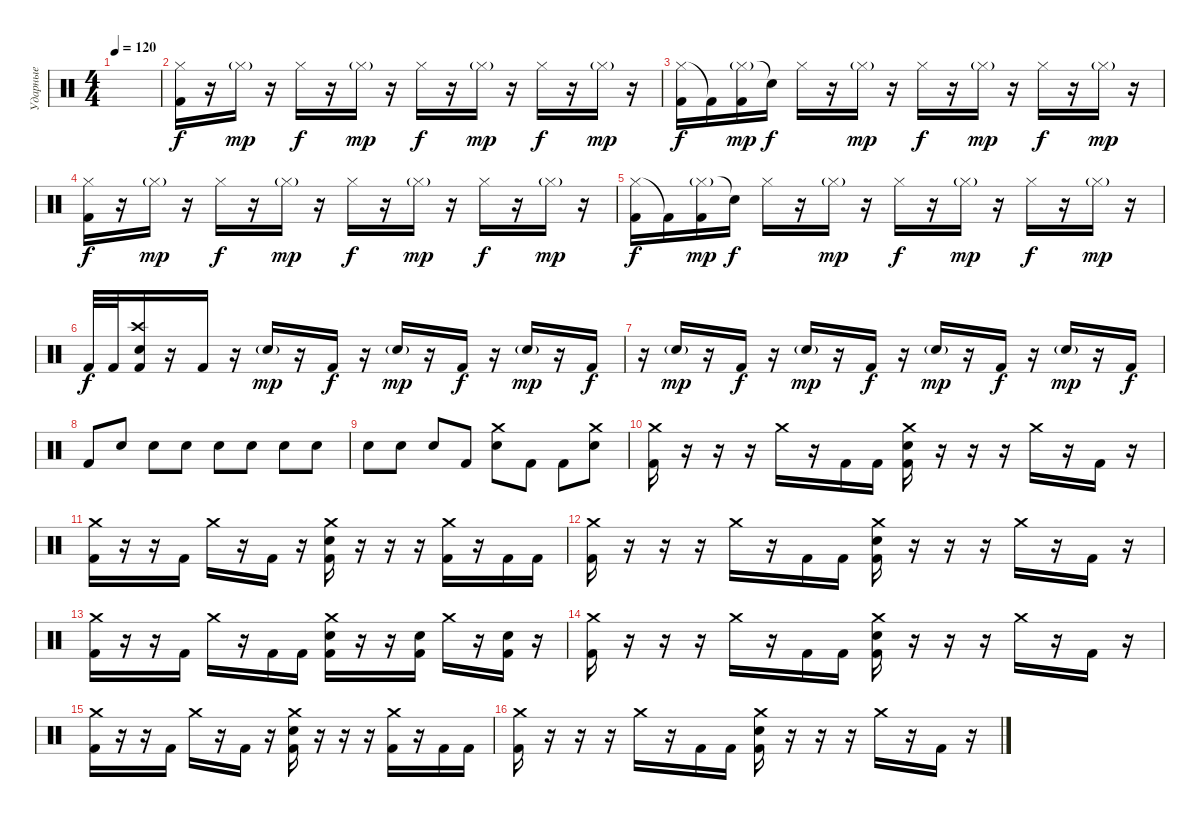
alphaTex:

\track ("Ударные" "Ударные") {instrument percussion}
\staff {score}
\articulation defaults
\ts (4 4)
\tempo 120
\clef neutral
\ks c
|
("Hi-Hat (closed)" "Kick (hit) 2").16 r.16 "Hi-Hat (closed)"{g}.16{dy mp} r.16 "Hi-Hat (closed)".16{dy f} r.16 "Hi-Hat (closed)"{g}.16{dy mp} r.16 "Hi-Hat (closed)".16{dy f} r.16 "Hi-Hat (closed)"{g}.16{dy mp} r.16 "Hi-Hat (closed)".16{dy f} r.16 "Hi-Hat (closed)"{g}.16{dy mp} r.16 |
("Hi-Hat (closed)" "Kick (hit) 2").16{dy f} "Kick (hit) 2"{t}.16 ("Hi-Hat (closed)"{g} "Kick (hit) 2").16{dy mp} "Snare (hit)"{t}.16{dy f} "Hi-Hat (closed)".16 r.16 "Hi-Hat (closed)"{g}.16{dy mp} r.16 "Hi-Hat (closed)".16{dy f} r.16 "Hi-Hat (closed)"{g}.16{dy mp} r.16 "Hi-Hat (closed)".16{dy f} r.16 "Hi-Hat (closed)"{g}.16{dy mp} r.16 |
("Hi-Hat (closed)" "Kick (hit) 2").16{dy f} r.16 "Hi-Hat (closed)"{g}.16{dy mp} r.16 "Hi-Hat (closed)".16{dy f} r.16 "Hi-Hat (closed)"{g}.16{dy mp} r.16 "Hi-Hat (closed)".16{dy f} r.16 "Hi-Hat (closed)"{g}.16{dy mp} r.16 "Hi-Hat (closed)".16{dy f} r.16 "Hi-Hat (closed)"{g}.16{dy mp} r.16 |
("Hi-Hat (closed)" "Kick (hit) 2").16{dy f} "Kick (hit) 2"{t}.16 ("Hi-Hat (closed)"{g} "Kick (hit) 2").16{dy mp} "Snare (hit)"{t}.16{dy f} "Hi-Hat (closed)".16 r.16 "Hi-Hat (closed)"{g}.16{dy mp} r.16 "Hi-Hat (closed)".16{dy f} r.16 "Hi-Hat (closed)"{g}.16{dy mp} r.16 "Hi-Hat (closed)".16{dy f} r.16 "Hi-Hat (closed)"{g}.16{dy mp} r.16 |
"Kick (hit) 2".32{dy f} "Kick (hit) 2".32 ("Crash high (hit)" "Electric Snare (hit)" "Kick (hit) 2").16 r.16 "Kick (hit) 2".16 r.16 "Electric Snare (hit)"{g}.16{dy mp} r.16 "Kick (hit) 2".16{dy f} r.16 "Electric Snare (hit)"{g}.16{dy mp} r.16 "Kick (hit) 2".16{dy f} r.16 "Electric Snare (hit)"{g}.16{dy mp} r.16 "Kick (hit) 2".16{dy f} |
r.16 "Electric Snare (hit)"{g}.16{dy mp} r.16 "Kick (hit) 2".16{dy f} r.16 "Electric Snare (hit)"{g}.16{dy mp} r.16 "Kick (hit) 2".16{dy f} r.16 "Electric Snare (hit)"{g}.16{dy mp} r.16 "Kick (hit) 2".16{dy f} r.16 "Electric Snare (hit)"{g}.16{dy mp} r.16 "Kick (hit) 2".16{dy f} |
"Kick (hit) 2".8{volume 0} "Electric Snare (hit)".8{volume 13} "Electric Snare (hit)".8 "Electric Snare (hit)".8 "Electric Snare (hit)".8 "Electric Snare (hit)".8 "Electric Snare (hit)".8 "Electric Snare (hit)".8 |
"Electric Snare (hit)".8 "Electric Snare (hit)".8 "Electric Snare (hit)".8 "Kick (hit) 2".8 ("Crash medium (hit)" "Electric Snare (hit)").8 "Kick (hit) 2".8 "Kick (hit) 2".8 ("Crash medium (hit)" "Electric Snare (hit)").8 |
("Crash medium (hit)" "Kick (hit) 2").16 r.16 r.16 r.16 "Crash medium (hit)".16 r.16 "Kick (hit) 2".16 "Kick (hit) 2".16 ("Crash medium (hit)" "Electric Snare (hit)" "Kick (hit) 2").16 r.16 r.16 r.16 "Crash medium (hit)".16 r.16 "Kick (hit) 2".16 r.16 |
("Crash medium (hit)" "Kick (hit) 2").16 r.16 r.16 "Kick (hit) 2".16 "Crash medium (hit)".16 r.16 "Kick (hit) 2".16 r.16 ("Crash medium (hit)" "Electric Snare (hit)" "Kick (hit) 2").16 r.16 r.16 r.16 ("Crash medium (hit)" "Kick (hit) 2").16 r.16 "Kick (hit) 2".16 "Kick (hit) 2".16 |
("Crash medium (hit)" "Kick (hit) 2").16 r.16 r.16 r.16 "Crash medium (hit)".16 r.16 "Kick (hit) 2".16 "Kick (hit) 2".16 ("Crash medium (hit)" "Electric Snare (hit)" "Kick (hit) 2").16 r.16 r.16 r.16 "Crash medium (hit)".16 r.16 "Kick (hit) 2".16 r.16 |
("Crash medium (hit)" "Kick (hit) 2").16 r.16 r.16 "Kick (hit) 2".16 "Crash medium (hit)".16 r.16 "Kick (hit) 2".16 "Kick (hit) 2".16 ("Crash medium (hit)" "Electric Snare (hit)" "Kick (hit) 2").16 r.16 r.16 ("Electric Snare (hit)" "Kick (hit) 2").16 "Crash medium (hit)".16 r.16 ("Electric Snare (hit)" "Kick (hit) 2").16 r.16 |
("Crash medium (hit)" "Kick (hit) 2").16 r.16 r.16 r.16 "Crash medium (hit)".16 r.16 "Kick (hit) 2".16 "Kick (hit) 2".16 ("Crash medium (hit)" "Electric Snare (hit)" "Kick (hit) 2").16 r.16 r.16 r.16 "Crash medium (hit)".16 r.16 "Kick (hit) 2".16 r.16 |
("Crash medium (hit)" "Kick (hit) 2").16 r.16 r.16 "Kick (hit) 2".16 "Crash medium (hit)".16 r.16 "Kick (hit) 2".16 r.16 ("Crash medium (hit)" "Electric Snare (hit)" "Kick (hit) 2").16 r.16 r.16 r.16 ("Crash medium (hit)" "Kick (hit) 2").16 r.16 "Kick (hit) 2".16 "Kick (hit) 2".16 |
("Crash medium (hit)" "Kick (hit) 2").16 r.16 r.16 r.16 "Crash medium (hit)".16 r.16 "Kick (hit) 2".16 "Kick (hit) 2".16 ("Crash medium (hit)" "Electric Snare (hit)" "Kick (hit) 2").16 r.16 r.16 r.16 "Crash medium (hit)".16 r.16 "Kick (hit) 2".16 r.16
